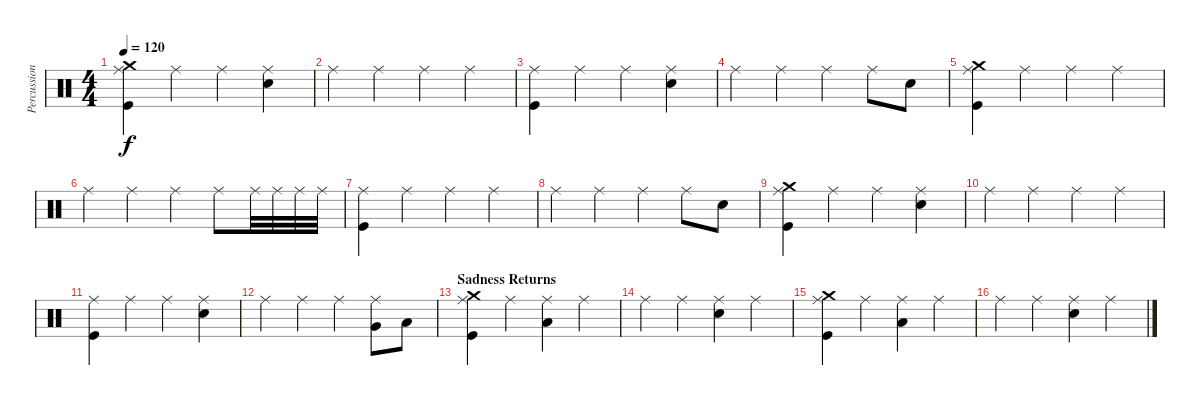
\track ("Percussion" "Percussion") {instrument percussion}
\staff {score}
\articulation defaults
\ts (4 4)
\tempo 120
\clef neutral
\ks c
("Crash medium (hit)" "Ride (middle)" "Kick (hit)").4{dy f} "Ride (middle)".4 "Ride (middle)".4 ("Ride (middle)" "Electric Snare (hit)").4 |
"Ride (middle)".4 "Ride (middle)".4 "Ride (middle)".4 "Ride (middle)".4 |
("Ride (middle)" "Kick (hit)").4 "Ride (middle)".4 "Ride (middle)".4 ("Ride (middle)" "Electric Snare (hit)").4 |
"Ride (middle)".4 "Ride (middle)".4 "Ride (middle)".4 "Ride (middle)".8 "Electric Snare (hit)".8 |
("Crash medium (hit)" "Ride (middle)" "Kick (hit)").4 "Ride (middle)".4 "Ride (middle)".4 "Ride (middle)".4 |
"Ride (middle)".4 "Ride (middle)".4 "Ride (middle)".4 "Ride (middle)".8 "Ride (middle)".32 "Ride (middle)".32 "Ride (middle)".32 "Ride (middle)".32 |
("Ride (middle)" "Kick (hit)").4 "Ride (middle)".4 "Ride (middle)".4 "Ride (middle)".4 |
"Ride (middle)".4 "Ride (middle)".4 "Ride (middle)".4 "Ride (middle)".8 "Electric Snare (hit)".8 |
("Crash medium (hit)" "Ride (middle)" "Kick (hit)").4 "Ride (middle)".4 "Ride (middle)".4 ("Ride (middle)" "Electric Snare (hit)").4 |
"Ride (middle)".4 "Ride (middle)".4 "Ride (middle)".4 "Ride (middle)".4 |
("Ride (middle)" "Kick (hit)").4 "Ride (middle)".4 "Ride (middle)".4 ("Ride (middle)" "Electric Snare (hit)").4 |
"Ride (middle)".4 "Ride (middle)".4 "Ride (middle)".4 ("Very Low Tom (hit)" "Ride (middle)").8 "Low Floor Tom (hit)".8 |
\section ("" "Sadness Returns")
("Crash medium (hit)" "Ride (middle)" "Kick (hit)").4 "Ride (middle)".4 ("Low Floor Tom (hit)" "Ride (middle)").4 "Ride (middle)".4 |
"Ride (middle)".4 "Ride (middle)".4 ("Electric Snare (hit)" "Ride (middle)").4 "Ride (middle)".4 |
("Crash medium (hit)" "Ride (middle)" "Kick (hit)").4 "Ride (middle)".4 ("Low Floor Tom (hit)" "Ride (middle)").4 "Ride (middle)".4 |
"Ride (middle)".4 "Ride (middle)".4 ("Electric Snare (hit)" "Ride (middle)").4 "Ride (middle)".4
